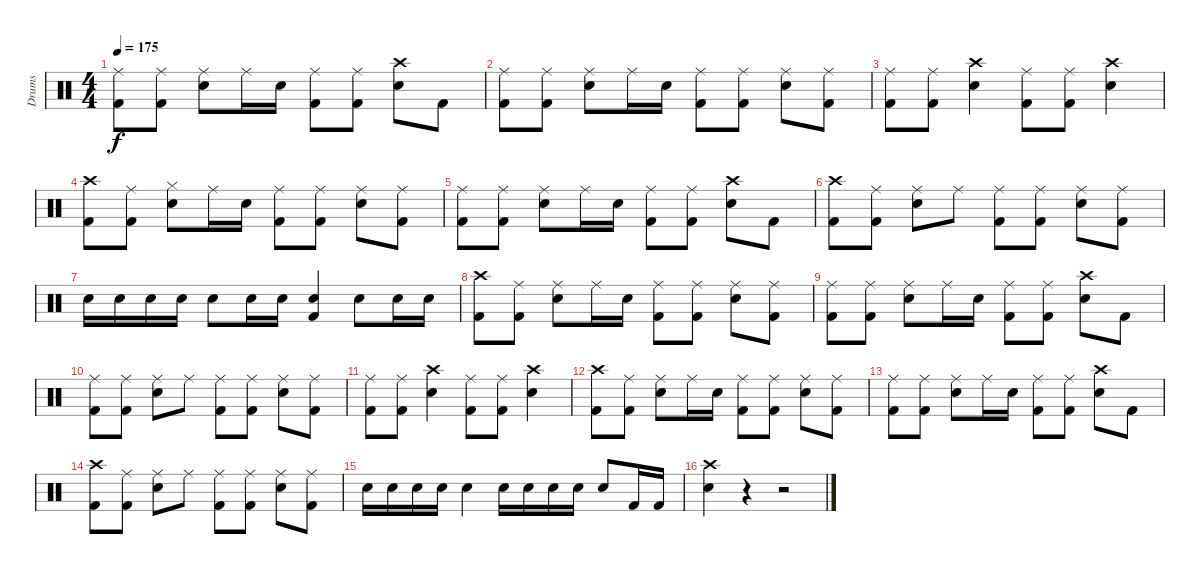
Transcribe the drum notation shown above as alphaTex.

\track ("Drums" "Drums") {instrument percussion}
\staff {score}
\articulation defaults
\ts (4 4)
\tempo 175
\clef neutral
\ks c
("Ride (middle)" "Kick (hit) 2").8{dy f} ("Ride (middle)" "Kick (hit) 2").8 ("Ride (middle)" "Snare (hit) 2").8 "Ride (middle)".16 "Snare (hit) 2".16 ("Ride (middle)" "Kick (hit) 2").8 ("Ride (middle)" "Kick (hit) 2").8 ("Crash high (hit)" "Snare (hit) 2").8 "Kick (hit) 2".8 |
("Ride (middle)" "Kick (hit) 2").8 ("Ride (middle)" "Kick (hit) 2").8 ("Ride (middle)" "Snare (hit) 2").8 "Ride (middle)".16 "Snare (hit) 2".16 ("Ride (middle)" "Kick (hit) 2").8 ("Ride (middle)" "Kick (hit) 2").8 ("Ride (middle)" "Snare (hit) 2").8 ("Ride (middle)" "Kick (hit) 2").8 |
("Ride (middle)" "Kick (hit) 2").8 ("Ride (middle)" "Kick (hit) 2").8 ("Crash high (hit)" "Snare (hit) 2").4 ("Ride (middle)" "Kick (hit) 2").8 ("Ride (middle)" "Kick (hit) 2").8 ("Crash high (hit)" "Snare (hit) 2").4 |
("Crash high (hit)" "Kick (hit) 2").8 ("Ride (middle)" "Kick (hit) 2").8 ("Hi-Hat (closed)" "Snare (hit) 2").8 "Ride (middle)".16 "Snare (hit) 2".16 ("Ride (middle)" "Kick (hit) 2").8 ("Ride (middle)" "Kick (hit) 2").8 ("Ride (middle)" "Snare (hit) 2").8 ("Ride (middle)" "Kick (hit) 2").8 |
("Ride (middle)" "Kick (hit) 2").8 ("Ride (middle)" "Kick (hit) 2").8 ("Ride (middle)" "Snare (hit) 2").8 "Ride (middle)".16 "Snare (hit) 2".16 ("Ride (middle)" "Kick (hit) 2").8 ("Ride (middle)" "Kick (hit) 2").8 ("Crash high (hit)" "Snare (hit) 2").8 "Kick (hit) 2".8 |
("Crash high (hit)" "Kick (hit) 2").8 ("Ride (middle)" "Kick (hit) 2").8 ("Ride (middle)" "Snare (hit) 2").8 "Ride (middle)".8 ("Ride (middle)" "Kick (hit) 2").8 ("Ride (middle)" "Kick (hit) 2").8 ("Ride (middle)" "Snare (hit) 2").8 ("Ride (middle)" "Kick (hit) 2").8 |
"Snare (hit) 2".16 "Snare (hit) 2".16 "Snare (hit) 2".16 "Snare (hit) 2".16 "Snare (hit) 2".8 "Snare (hit) 2".16 "Snare (hit) 2".16 ("Snare (hit) 2" "Kick (hit) 2").4 "Snare (hit) 2".8 "Snare (hit) 2".16 "Snare (hit) 2".16 |
("Crash high (hit)" "Kick (hit) 2").8 ("Ride (middle)" "Kick (hit) 2").8 ("Ride (middle)" "Snare (hit) 2").8 "Ride (middle)".16 "Snare (hit) 2".16 ("Ride (middle)" "Kick (hit) 2").8 ("Ride (middle)" "Kick (hit) 2").8 ("Ride (middle)" "Snare (hit) 2").8 ("Ride (middle)" "Kick (hit) 2").8 |
("Ride (middle)" "Kick (hit) 2").8 ("Ride (middle)" "Kick (hit) 2").8 ("Ride (middle)" "Snare (hit) 2").8 "Ride (middle)".16 "Snare (hit) 2".16 ("Ride (middle)" "Kick (hit) 2").8 ("Ride (middle)" "Kick (hit) 2").8 ("Crash high (hit)" "Snare (hit) 2").8 "Kick (hit) 2".8 |
("Ride (middle)" "Kick (hit) 2").8 ("Ride (middle)" "Kick (hit) 2").8 ("Ride (middle)" "Snare (hit) 2").8 "Ride (middle)".8 ("Ride (middle)" "Kick (hit) 2").8 ("Ride (middle)" "Kick (hit) 2").8 ("Ride (middle)" "Snare (hit) 2").8 ("Ride (middle)" "Kick (hit) 2").8 |
("Ride (middle)" "Kick (hit) 2").8 ("Ride (middle)" "Kick (hit) 2").8 ("Crash high (hit)" "Snare (hit) 2").4 ("Ride (middle)" "Kick (hit) 2").8 ("Ride (middle)" "Kick (hit) 2").8 ("Crash high (hit)" "Snare (hit) 2").4 |
("Crash high (hit)" "Kick (hit) 2").8 ("Ride (middle)" "Kick (hit) 2").8 ("Ride (middle)" "Snare (hit) 2").8 "Ride (middle)".16 "Snare (hit) 2".16 ("Ride (middle)" "Kick (hit) 2").8 ("Ride (middle)" "Kick (hit) 2").8 ("Ride (middle)" "Snare (hit) 2").8 ("Ride (middle)" "Kick (hit) 2").8 |
("Ride (middle)" "Kick (hit) 2").8 ("Ride (middle)" "Kick (hit) 2").8 ("Ride (middle)" "Snare (hit) 2").8 "Ride (middle)".16 "Snare (hit) 2".16 ("Ride (middle)" "Kick (hit) 2").8 ("Ride (middle)" "Kick (hit) 2").8 ("Crash high (hit)" "Snare (hit) 2").8 "Kick (hit) 2".8 |
("Crash high (hit)" "Kick (hit) 2").8 ("Ride (middle)" "Kick (hit) 2").8 ("Ride (middle)" "Snare (hit) 2").8 "Ride (middle)".8 ("Ride (middle)" "Kick (hit) 2").8 ("Ride (middle)" "Kick (hit) 2").8 ("Ride (middle)" "Snare (hit) 2").8 ("Ride (middle)" "Kick (hit) 2").8 |
"Snare (hit) 2".16 "Snare (hit) 2".16 "Snare (hit) 2".16 "Snare (hit) 2".16 "Snare (hit) 2".4 "Snare (hit) 2".16 "Snare (hit) 2".16 "Snare (hit) 2".16 "Snare (hit) 2".16 "Snare (hit) 2".8 "Kick (hit) 2".16 "Kick (hit) 2".16 |
("Crash high (hit)" "Snare (hit) 2").4 r.4 r.2
